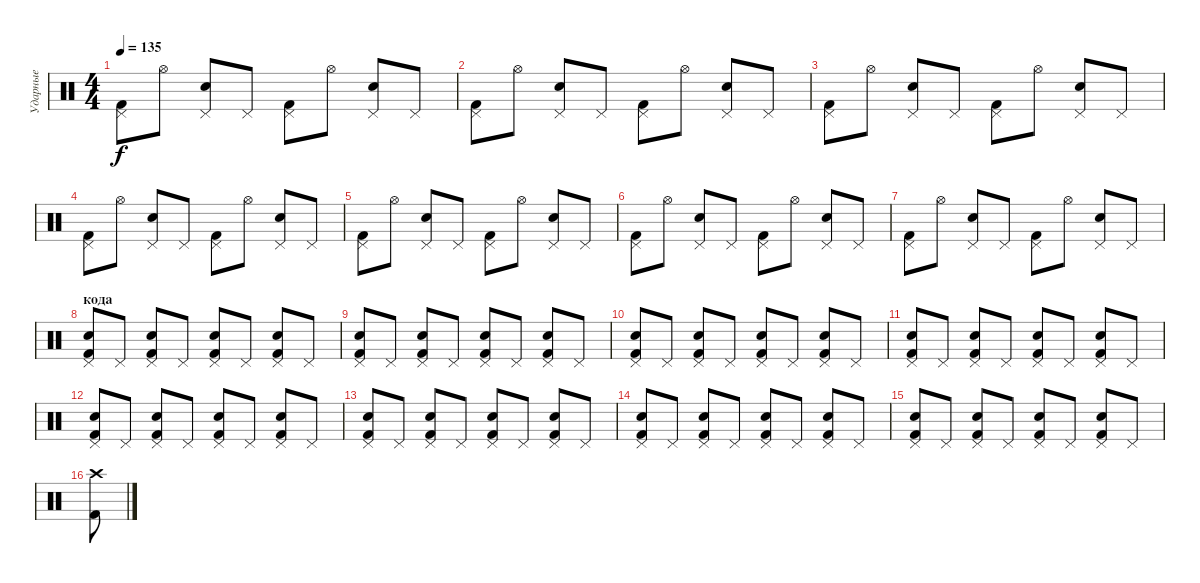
\track ("Ударные" "Ударные") {instrument percussion}
\staff {score}
\articulation defaults
\ts (4 4)
\tempo 135
\clef neutral
\ks c
("Pedal Hi-Hat (hit)" "Kick (hit) 2").8{dy f} "Hi-Hat (open)".8 ("Pedal Hi-Hat (hit)" "Snare (hit) 2").8 "Pedal Hi-Hat (hit)".8 ("Pedal Hi-Hat (hit)" "Kick (hit) 2").8 "Hi-Hat (open)".8 ("Pedal Hi-Hat (hit)" "Snare (hit) 2").8 "Pedal Hi-Hat (hit)".8 |
("Pedal Hi-Hat (hit)" "Kick (hit) 2").8 "Hi-Hat (open)".8 ("Pedal Hi-Hat (hit)" "Snare (hit) 2").8 "Pedal Hi-Hat (hit)".8 ("Pedal Hi-Hat (hit)" "Kick (hit) 2").8 "Hi-Hat (open)".8 ("Pedal Hi-Hat (hit)" "Snare (hit) 2").8 "Pedal Hi-Hat (hit)".8 |
("Pedal Hi-Hat (hit)" "Kick (hit) 2").8 "Hi-Hat (open)".8 ("Pedal Hi-Hat (hit)" "Snare (hit) 2").8 "Pedal Hi-Hat (hit)".8 ("Pedal Hi-Hat (hit)" "Kick (hit) 2").8 "Hi-Hat (open)".8 ("Pedal Hi-Hat (hit)" "Snare (hit) 2").8 "Pedal Hi-Hat (hit)".8 |
("Pedal Hi-Hat (hit)" "Kick (hit) 2").8 "Hi-Hat (open)".8 ("Pedal Hi-Hat (hit)" "Snare (hit) 2").8 "Pedal Hi-Hat (hit)".8 ("Pedal Hi-Hat (hit)" "Kick (hit) 2").8 "Hi-Hat (open)".8 ("Pedal Hi-Hat (hit)" "Snare (hit) 2").8 "Pedal Hi-Hat (hit)".8 |
("Pedal Hi-Hat (hit)" "Kick (hit) 2").8 "Hi-Hat (open)".8 ("Pedal Hi-Hat (hit)" "Snare (hit) 2").8 "Pedal Hi-Hat (hit)".8 ("Pedal Hi-Hat (hit)" "Kick (hit) 2").8 "Hi-Hat (open)".8 ("Pedal Hi-Hat (hit)" "Snare (hit) 2").8 "Pedal Hi-Hat (hit)".8 |
("Pedal Hi-Hat (hit)" "Kick (hit) 2").8 "Hi-Hat (open)".8 ("Pedal Hi-Hat (hit)" "Snare (hit) 2").8 "Pedal Hi-Hat (hit)".8 ("Pedal Hi-Hat (hit)" "Kick (hit) 2").8 "Hi-Hat (open)".8 ("Pedal Hi-Hat (hit)" "Snare (hit) 2").8 "Pedal Hi-Hat (hit)".8 |
("Pedal Hi-Hat (hit)" "Kick (hit) 2").8 "Hi-Hat (open)".8 ("Pedal Hi-Hat (hit)" "Snare (hit) 2").8 "Pedal Hi-Hat (hit)".8 ("Pedal Hi-Hat (hit)" "Kick (hit) 2").8 "Hi-Hat (open)".8 ("Pedal Hi-Hat (hit)" "Snare (hit) 2").8 "Pedal Hi-Hat (hit)".8 |
\section ("" "кода")
("Pedal Hi-Hat (hit)" "Snare (hit) 2" "Kick (hit) 2").8 "Pedal Hi-Hat (hit)".8 ("Pedal Hi-Hat (hit)" "Snare (hit) 2" "Kick (hit) 2").8 "Pedal Hi-Hat (hit)".8 ("Pedal Hi-Hat (hit)" "Snare (hit) 2" "Kick (hit) 2").8 "Pedal Hi-Hat (hit)".8 ("Pedal Hi-Hat (hit)" "Snare (hit) 2" "Kick (hit) 2").8 "Pedal Hi-Hat (hit)".8 |
("Pedal Hi-Hat (hit)" "Snare (hit) 2" "Kick (hit) 2").8 "Pedal Hi-Hat (hit)".8 ("Pedal Hi-Hat (hit)" "Snare (hit) 2" "Kick (hit) 2").8 "Pedal Hi-Hat (hit)".8 ("Pedal Hi-Hat (hit)" "Snare (hit) 2" "Kick (hit) 2").8 "Pedal Hi-Hat (hit)".8 ("Pedal Hi-Hat (hit)" "Snare (hit) 2" "Kick (hit) 2").8 "Pedal Hi-Hat (hit)".8 |
("Pedal Hi-Hat (hit)" "Snare (hit) 2" "Kick (hit) 2").8 "Pedal Hi-Hat (hit)".8 ("Pedal Hi-Hat (hit)" "Snare (hit) 2" "Kick (hit) 2").8 "Pedal Hi-Hat (hit)".8 ("Pedal Hi-Hat (hit)" "Snare (hit) 2" "Kick (hit) 2").8 "Pedal Hi-Hat (hit)".8 ("Pedal Hi-Hat (hit)" "Snare (hit) 2" "Kick (hit) 2").8 "Pedal Hi-Hat (hit)".8 |
("Pedal Hi-Hat (hit)" "Snare (hit) 2" "Kick (hit) 2").8 "Pedal Hi-Hat (hit)".8 ("Pedal Hi-Hat (hit)" "Snare (hit) 2" "Kick (hit) 2").8 "Pedal Hi-Hat (hit)".8 ("Pedal Hi-Hat (hit)" "Snare (hit) 2" "Kick (hit) 2").8 "Pedal Hi-Hat (hit)".8 ("Pedal Hi-Hat (hit)" "Snare (hit) 2" "Kick (hit) 2").8 "Pedal Hi-Hat (hit)".8 |
("Pedal Hi-Hat (hit)" "Snare (hit) 2" "Kick (hit) 2").8 "Pedal Hi-Hat (hit)".8 ("Pedal Hi-Hat (hit)" "Snare (hit) 2" "Kick (hit) 2").8 "Pedal Hi-Hat (hit)".8 ("Pedal Hi-Hat (hit)" "Snare (hit) 2" "Kick (hit) 2").8 "Pedal Hi-Hat (hit)".8 ("Pedal Hi-Hat (hit)" "Snare (hit) 2" "Kick (hit) 2").8 "Pedal Hi-Hat (hit)".8 |
("Pedal Hi-Hat (hit)" "Snare (hit) 2" "Kick (hit) 2").8 "Pedal Hi-Hat (hit)".8 ("Pedal Hi-Hat (hit)" "Snare (hit) 2" "Kick (hit) 2").8 "Pedal Hi-Hat (hit)".8 ("Pedal Hi-Hat (hit)" "Snare (hit) 2" "Kick (hit) 2").8 "Pedal Hi-Hat (hit)".8 ("Pedal Hi-Hat (hit)" "Snare (hit) 2" "Kick (hit) 2").8 "Pedal Hi-Hat (hit)".8 |
("Pedal Hi-Hat (hit)" "Snare (hit) 2" "Kick (hit) 2").8 "Pedal Hi-Hat (hit)".8 ("Pedal Hi-Hat (hit)" "Snare (hit) 2" "Kick (hit) 2").8 "Pedal Hi-Hat (hit)".8 ("Pedal Hi-Hat (hit)" "Snare (hit) 2" "Kick (hit) 2").8 "Pedal Hi-Hat (hit)".8 ("Pedal Hi-Hat (hit)" "Snare (hit) 2" "Kick (hit) 2").8 "Pedal Hi-Hat (hit)".8 |
("Pedal Hi-Hat (hit)" "Snare (hit) 2" "Kick (hit) 2").8 "Pedal Hi-Hat (hit)".8 ("Pedal Hi-Hat (hit)" "Snare (hit) 2" "Kick (hit) 2").8 "Pedal Hi-Hat (hit)".8 ("Pedal Hi-Hat (hit)" "Snare (hit) 2" "Kick (hit) 2").8 "Pedal Hi-Hat (hit)".8 ("Pedal Hi-Hat (hit)" "Snare (hit) 2" "Kick (hit) 2").8 "Pedal Hi-Hat (hit)".8 |
("Kick (hit) 2" "Crash high (hit)").8
